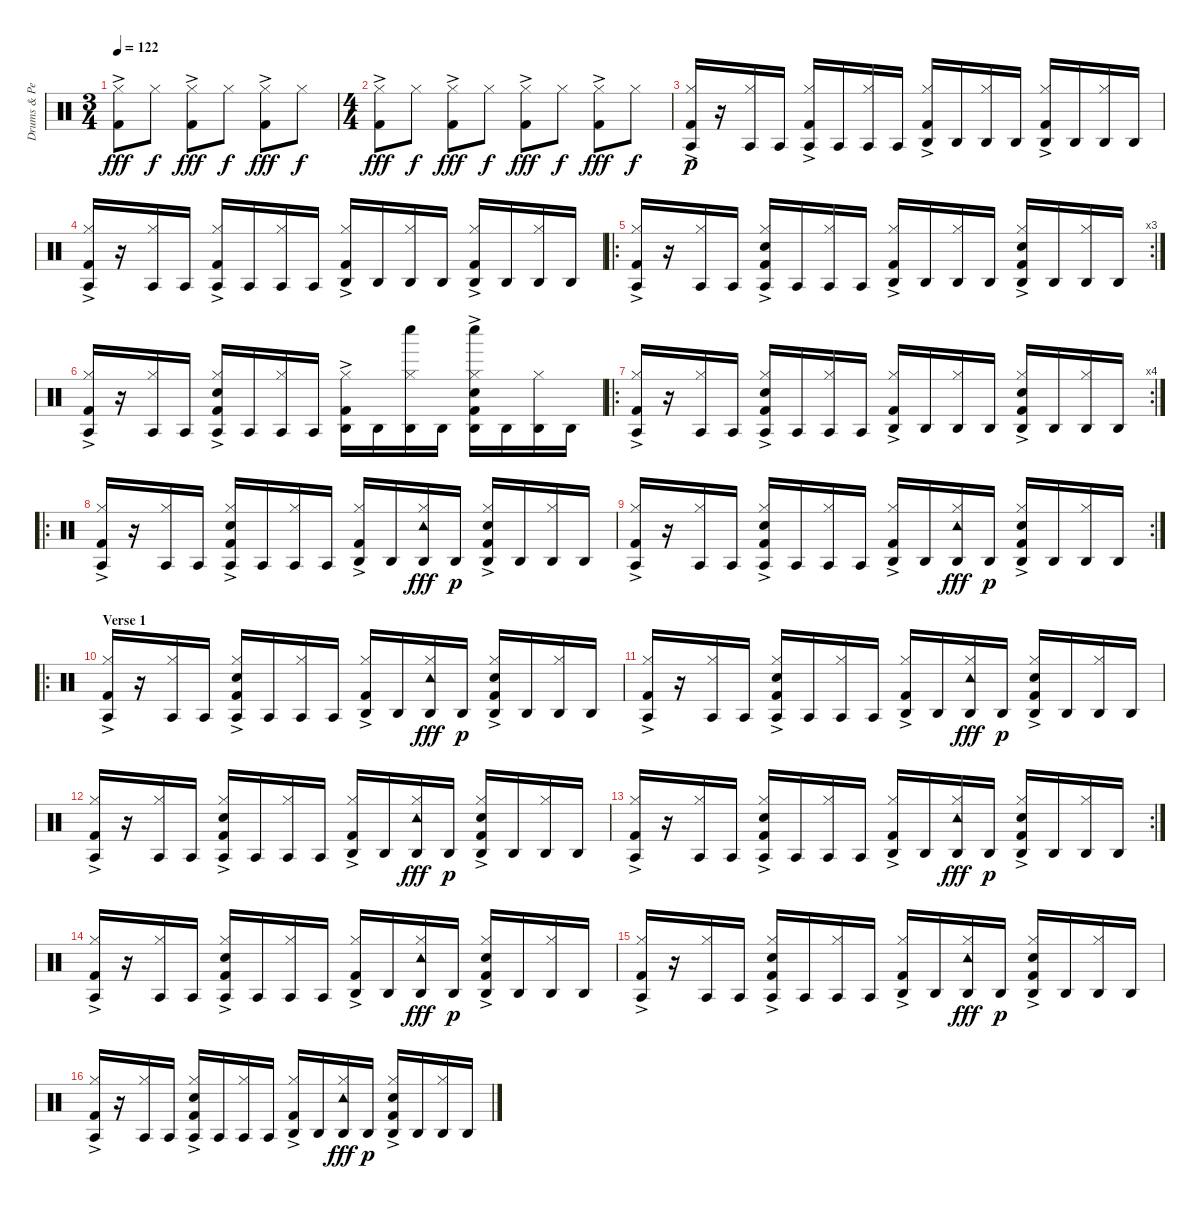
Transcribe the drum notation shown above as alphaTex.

\track ("Drums & Percussion" "Drums & Pe") {instrument percussion}
\staff {score}
\articulation defaults
\ts (3 4)
\tempo 122
\clef neutral
\ks c
("Hi-Hat (closed)"{ac} "Kick (hit) 2").8{dy fff} "Hi-Hat (closed)".8{dy f} ("Hi-Hat (closed)"{ac} "Kick (hit) 2").8{dy fff} "Hi-Hat (closed)".8{dy f} ("Hi-Hat (closed)"{ac} "Kick (hit) 2").8{dy fff} "Hi-Hat (closed)".8{dy f} |
\ts (4 4)
("Hi-Hat (closed)"{ac} "Kick (hit) 2").8{dy fff} "Hi-Hat (closed)".8{dy f} ("Hi-Hat (closed)"{ac} "Kick (hit) 2").8{dy fff} "Hi-Hat (closed)".8{dy f} ("Hi-Hat (closed)"{ac} "Kick (hit) 2").8{dy fff} "Hi-Hat (closed)".8{dy f} ("Hi-Hat (closed)"{ac} "Kick (hit) 2").8{dy fff} "Hi-Hat (closed)".8{dy f} |
("Hi-Hat (closed)"{ac} "Agogo tow (hit)" "Kick (hit) 2").16{dy p} r.16 ("Hi-Hat (closed)" "Agogo tow (hit)").16 "Agogo tow (hit)".16 ("Hi-Hat (closed)"{ac} "Agogo tow (hit)" "Kick (hit) 2").16 "Agogo tow (hit)".16 ("Hi-Hat (closed)" "Agogo tow (hit)").16 "Agogo tow (hit)".16 ("Hi-Hat (closed)"{ac} "Agogo high (hit)" "Kick (hit) 2").16 "Agogo high (hit)".16 ("Hi-Hat (closed)" "Agogo high (hit)").16 "Agogo high (hit)".16 ("Hi-Hat (closed)"{ac} "Agogo high (hit)" "Kick (hit) 2").16 "Agogo high (hit)".16 ("Hi-Hat (closed)" "Agogo high (hit)").16 "Agogo high (hit)".16 |
("Hi-Hat (closed)"{ac} "Agogo tow (hit)" "Kick (hit) 2").16 r.16 ("Hi-Hat (closed)" "Agogo tow (hit)").16 "Agogo tow (hit)".16 ("Hi-Hat (closed)"{ac} "Agogo tow (hit)" "Kick (hit) 2").16 "Agogo tow (hit)".16 ("Hi-Hat (closed)" "Agogo tow (hit)").16 "Agogo tow (hit)".16 ("Hi-Hat (closed)"{ac} "Agogo high (hit)" "Kick (hit) 2").16 "Agogo high (hit)".16 ("Hi-Hat (closed)" "Agogo high (hit)").16 "Agogo high (hit)".16 ("Hi-Hat (closed)"{ac} "Agogo high (hit)" "Kick (hit) 2").16 "Agogo high (hit)".16 ("Hi-Hat (closed)" "Agogo high (hit)").16 "Agogo high (hit)".16 |
\ro
\rc 3
("Hi-Hat (closed)"{ac} "Agogo tow (hit)" "Kick (hit) 2").16 r.16 ("Hi-Hat (closed)" "Agogo tow (hit)").16 "Agogo tow (hit)".16 ("Hi-Hat (closed)"{ac} "Agogo tow (hit)" "Electric Snare (hit)" "Kick (hit) 2").16 "Agogo tow (hit)".16 ("Hi-Hat (closed)" "Agogo tow (hit)").16 "Agogo tow (hit)".16 ("Hi-Hat (closed)"{ac} "Agogo high (hit)" "Kick (hit) 2").16 "Agogo high (hit)".16 ("Hi-Hat (closed)" "Agogo high (hit)").16 "Agogo high (hit)".16 ("Hi-Hat (closed)"{ac} "Agogo high (hit)" "Electric Snare (hit)" "Kick (hit) 2").16 "Agogo high (hit)".16 ("Hi-Hat (closed)" "Agogo high (hit)").16 "Agogo high (hit)".16 |
("Hi-Hat (closed)"{ac} "Agogo tow (hit)" "Kick (hit) 2").16 r.16 ("Hi-Hat (closed)" "Agogo tow (hit)").16 "Agogo tow (hit)".16 ("Hi-Hat (closed)"{ac} "Agogo tow (hit)" "Electric Snare (hit)" "Kick (hit) 2").16 "Agogo tow (hit)".16 ("Hi-Hat (closed)" "Agogo tow (hit)").16 "Agogo tow (hit)".16 ("Hi-Hat (closed)"{ac} "Agogo high (hit)" "Kick (hit) 2").16 "Agogo high (hit)".16 ("Whistle low (hit)" "Hi-Hat (closed)" "Agogo high (hit)").16 "Agogo high (hit)".16 ("Whistle low (hit)" "Hi-Hat (closed)"{ac} "Agogo high (hit)" "Electric Snare (hit)" "Kick (hit) 2").16 "Agogo high (hit)".16 ("Hi-Hat (closed)" "Agogo high (hit)").16 "Agogo high (hit)".16 |
\ro
\rc 4
("Hi-Hat (closed)"{ac} "Agogo tow (hit)" "Kick (hit) 2").16 r.16 ("Hi-Hat (closed)" "Agogo tow (hit)").16 "Agogo tow (hit)".16 ("Hi-Hat (closed)"{ac} "Agogo tow (hit)" "Electric Snare (hit)" "Kick (hit) 2").16 "Agogo tow (hit)".16 ("Hi-Hat (closed)" "Agogo tow (hit)").16 "Agogo tow (hit)".16 ("Hi-Hat (closed)"{ac} "Agogo high (hit)" "Kick (hit) 2").16 "Agogo high (hit)".16 ("Hi-Hat (closed)" "Agogo high (hit)").16 "Agogo high (hit)".16 ("Hi-Hat (closed)"{ac} "Agogo high (hit)" "Electric Snare (hit)" "Kick (hit) 2").16 "Agogo high (hit)".16 ("Hi-Hat (closed)" "Agogo high (hit)").16 "Agogo high (hit)".16 |
\ro
("Hi-Hat (closed)"{ac} "Agogo tow (hit)" "Kick (hit) 2").16 r.16 ("Hi-Hat (closed)" "Agogo tow (hit)").16 "Agogo tow (hit)".16 ("Hi-Hat (closed)"{ac} "Agogo tow (hit)" "Electric Snare (hit)" "Kick (hit) 2").16 "Agogo tow (hit)".16 ("Hi-Hat (closed)" "Agogo tow (hit)").16 "Agogo tow (hit)".16 ("Hi-Hat (closed)"{ac} "Agogo high (hit)" "Kick (hit) 2").16 "Agogo high (hit)".16 ("Hi-Hat (closed)" "Agogo high (hit)" "Tambourine (hit)").16{dy fff} "Agogo high (hit)".16{dy p} ("Hi-Hat (closed)"{ac} "Agogo high (hit)" "Electric Snare (hit)" "Kick (hit) 2").16 "Agogo high (hit)".16 ("Hi-Hat (closed)" "Agogo high (hit)").16 "Agogo high (hit)".16 |
\rc 2
("Hi-Hat (closed)"{ac} "Agogo tow (hit)" "Kick (hit) 2").16 r.16 ("Hi-Hat (closed)" "Agogo tow (hit)").16 "Agogo tow (hit)".16 ("Hi-Hat (closed)"{ac} "Agogo tow (hit)" "Electric Snare (hit)" "Kick (hit) 2").16 "Agogo tow (hit)".16 ("Hi-Hat (closed)" "Agogo tow (hit)").16 "Agogo tow (hit)".16 ("Hi-Hat (closed)"{ac} "Agogo high (hit)" "Kick (hit) 2").16 "Agogo high (hit)".16 ("Hi-Hat (closed)" "Agogo high (hit)" "Tambourine (hit)").16{dy fff} "Agogo high (hit)".16{dy p} ("Hi-Hat (closed)"{ac} "Agogo high (hit)" "Electric Snare (hit)" "Kick (hit) 2").16 "Agogo high (hit)".16 ("Hi-Hat (closed)" "Agogo high (hit)").16 "Agogo high (hit)".16 |
\ro
\section ("" "Verse 1")
("Hi-Hat (closed)"{ac} "Agogo tow (hit)" "Kick (hit) 2").16 r.16 ("Hi-Hat (closed)" "Agogo tow (hit)").16 "Agogo tow (hit)".16 ("Hi-Hat (closed)"{ac} "Agogo tow (hit)" "Electric Snare (hit)" "Kick (hit) 2").16 "Agogo tow (hit)".16 ("Hi-Hat (closed)" "Agogo tow (hit)").16 "Agogo tow (hit)".16 ("Hi-Hat (closed)"{ac} "Agogo high (hit)" "Kick (hit) 2").16 "Agogo high (hit)".16 ("Hi-Hat (closed)" "Agogo high (hit)" "Tambourine (hit)").16{dy fff} "Agogo high (hit)".16{dy p} ("Hi-Hat (closed)"{ac} "Agogo high (hit)" "Electric Snare (hit)" "Kick (hit) 2").16 "Agogo high (hit)".16 ("Hi-Hat (closed)" "Agogo high (hit)").16 "Agogo high (hit)".16 |
("Hi-Hat (closed)"{ac} "Agogo tow (hit)" "Kick (hit) 2").16 r.16 ("Hi-Hat (closed)" "Agogo tow (hit)").16 "Agogo tow (hit)".16 ("Hi-Hat (closed)"{ac} "Agogo tow (hit)" "Electric Snare (hit)" "Kick (hit) 2").16 "Agogo tow (hit)".16 ("Hi-Hat (closed)" "Agogo tow (hit)").16 "Agogo tow (hit)".16 ("Hi-Hat (closed)"{ac} "Agogo high (hit)" "Kick (hit) 2").16 "Agogo high (hit)".16 ("Hi-Hat (closed)" "Agogo high (hit)" "Tambourine (hit)").16{dy fff} "Agogo high (hit)".16{dy p} ("Hi-Hat (closed)"{ac} "Agogo high (hit)" "Electric Snare (hit)" "Kick (hit) 2").16 "Agogo high (hit)".16 ("Hi-Hat (closed)" "Agogo high (hit)").16 "Agogo high (hit)".16 |
("Hi-Hat (closed)"{ac} "Agogo tow (hit)" "Kick (hit) 2").16 r.16 ("Hi-Hat (closed)" "Agogo tow (hit)").16 "Agogo tow (hit)".16 ("Hi-Hat (closed)"{ac} "Agogo tow (hit)" "Electric Snare (hit)" "Kick (hit) 2").16 "Agogo tow (hit)".16 ("Hi-Hat (closed)" "Agogo tow (hit)").16 "Agogo tow (hit)".16 ("Hi-Hat (closed)"{ac} "Agogo high (hit)" "Kick (hit) 2").16 "Agogo high (hit)".16 ("Hi-Hat (closed)" "Agogo high (hit)" "Tambourine (hit)").16{dy fff} "Agogo high (hit)".16{dy p} ("Hi-Hat (closed)"{ac} "Agogo high (hit)" "Electric Snare (hit)" "Kick (hit) 2").16 "Agogo high (hit)".16 ("Hi-Hat (closed)" "Agogo high (hit)").16 "Agogo high (hit)".16 |
\rc 2
("Hi-Hat (closed)"{ac} "Agogo tow (hit)" "Kick (hit) 2").16 r.16 ("Hi-Hat (closed)" "Agogo tow (hit)").16 "Agogo tow (hit)".16 ("Hi-Hat (closed)"{ac} "Agogo tow (hit)" "Electric Snare (hit)" "Kick (hit) 2").16 "Agogo tow (hit)".16 ("Hi-Hat (closed)" "Agogo tow (hit)").16 "Agogo tow (hit)".16 ("Hi-Hat (closed)"{ac} "Agogo high (hit)" "Kick (hit) 2").16 "Agogo high (hit)".16 ("Hi-Hat (closed)" "Agogo high (hit)" "Tambourine (hit)").16{dy fff} "Agogo high (hit)".16{dy p} ("Hi-Hat (closed)"{ac} "Agogo high (hit)" "Electric Snare (hit)" "Kick (hit) 2").16 "Agogo high (hit)".16 ("Hi-Hat (closed)" "Agogo high (hit)").16 "Agogo high (hit)".16 |
("Hi-Hat (closed)"{ac} "Agogo tow (hit)" "Kick (hit) 2").16 r.16 ("Hi-Hat (closed)" "Agogo tow (hit)").16 "Agogo tow (hit)".16 ("Hi-Hat (closed)"{ac} "Agogo tow (hit)" "Electric Snare (hit)" "Kick (hit) 2").16 "Agogo tow (hit)".16 ("Hi-Hat (closed)" "Agogo tow (hit)").16 "Agogo tow (hit)".16 ("Hi-Hat (closed)"{ac} "Agogo high (hit)" "Kick (hit) 2").16 "Agogo high (hit)".16 ("Hi-Hat (closed)" "Agogo high (hit)" "Tambourine (hit)").16{dy fff} "Agogo high (hit)".16{dy p} ("Hi-Hat (closed)"{ac} "Agogo high (hit)" "Electric Snare (hit)" "Kick (hit) 2").16 "Agogo high (hit)".16 ("Hi-Hat (closed)" "Agogo high (hit)").16 "Agogo high (hit)".16 |
("Hi-Hat (closed)"{ac} "Agogo tow (hit)" "Kick (hit) 2").16 r.16 ("Hi-Hat (closed)" "Agogo tow (hit)").16 "Agogo tow (hit)".16 ("Hi-Hat (closed)"{ac} "Agogo tow (hit)" "Electric Snare (hit)" "Kick (hit) 2").16 "Agogo tow (hit)".16 ("Hi-Hat (closed)" "Agogo tow (hit)").16 "Agogo tow (hit)".16 ("Hi-Hat (closed)"{ac} "Agogo high (hit)" "Kick (hit) 2").16 "Agogo high (hit)".16 ("Hi-Hat (closed)" "Agogo high (hit)" "Tambourine (hit)").16{dy fff} "Agogo high (hit)".16{dy p} ("Hi-Hat (closed)"{ac} "Agogo high (hit)" "Electric Snare (hit)" "Kick (hit) 2").16 "Agogo high (hit)".16 ("Hi-Hat (closed)" "Agogo high (hit)").16 "Agogo high (hit)".16 |
("Hi-Hat (closed)"{ac} "Agogo tow (hit)" "Kick (hit) 2").16 r.16 ("Hi-Hat (closed)" "Agogo tow (hit)").16 "Agogo tow (hit)".16 ("Hi-Hat (closed)"{ac} "Agogo tow (hit)" "Electric Snare (hit)" "Kick (hit) 2").16 "Agogo tow (hit)".16 ("Hi-Hat (closed)" "Agogo tow (hit)").16 "Agogo tow (hit)".16 ("Hi-Hat (closed)"{ac} "Agogo high (hit)" "Kick (hit) 2").16 "Agogo high (hit)".16 ("Hi-Hat (closed)" "Agogo high (hit)" "Tambourine (hit)").16{dy fff} "Agogo high (hit)".16{dy p} ("Hi-Hat (closed)"{ac} "Agogo high (hit)" "Electric Snare (hit)" "Kick (hit) 2").16 "Agogo high (hit)".16 ("Hi-Hat (closed)" "Agogo high (hit)").16 "Agogo high (hit)".16
